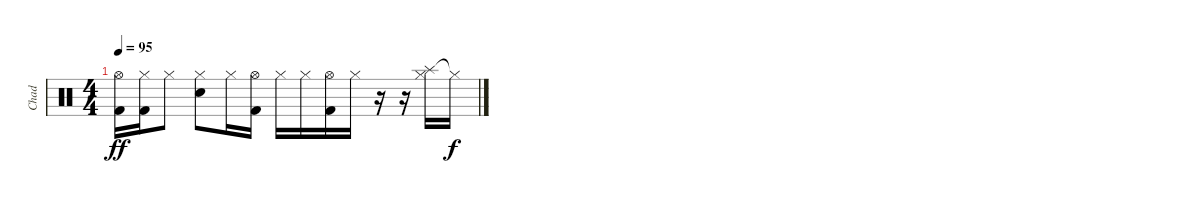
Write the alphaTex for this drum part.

\track ("Chad" "Chad") {instrument percussion}
\staff {score}
\articulation defaults
\ts (4 4)
\tempo 95
\clef neutral
\ks c
("Hi-Hat (open)" "Kick (hit) 2").16{dy ff} ("Hi-Hat (closed)" "Kick (hit) 2").16 "Hi-Hat (closed)".8 ("Electric Snare (hit)" "Hi-Hat (closed)").8 "Hi-Hat (closed)".16 ("Hi-Hat (open)" "Kick (hit) 2").16 "Hi-Hat (closed)".16 "Hi-Hat (closed)".16 ("Hi-Hat (open)" "Kick (hit) 2").16 "Hi-Hat (closed)".16 r.16 r.16 ("Splash (hit)" "Hi-Hat (closed)").16 "Hi-Hat (closed)"{t}.16{dy f}
